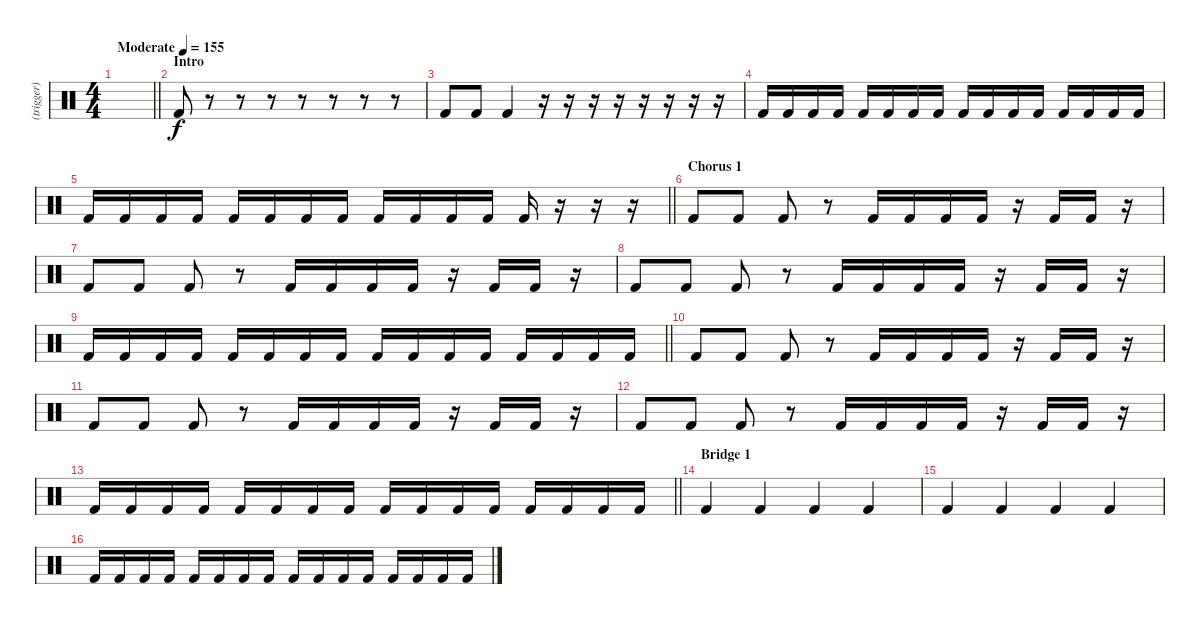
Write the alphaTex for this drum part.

\track ("(trigger)" "(trigger)") {instrument percussion}
\staff {score}
\articulation defaults
\ts (4 4)
\tempo (155 "Moderate")
\clef neutral
\barLineRight lightlight
\ks c
|
\section ("" "Intro")
"Kick (hit) 2".8{volume 8} r.8 r.8 r.8 r.8 r.8 r.8 r.8 |
"Kick (hit) 2".8 "Kick (hit) 2".8 "Kick (hit) 2".4 r.16 r.16 r.16 r.16 r.16 r.16 r.16 r.16 |
"Kick (hit) 2".16 "Kick (hit) 2".16 "Kick (hit) 2".16 "Kick (hit) 2".16 "Kick (hit) 2".16 "Kick (hit) 2".16 "Kick (hit) 2".16 "Kick (hit) 2".16 "Kick (hit) 2".16 "Kick (hit) 2".16 "Kick (hit) 2".16 "Kick (hit) 2".16 "Kick (hit) 2".16 "Kick (hit) 2".16 "Kick (hit) 2".16 "Kick (hit) 2".16 |
\barLineRight lightlight "Kick (hit) 2".16 "Kick (hit) 2".16 "Kick (hit) 2".16 "Kick (hit) 2".16 "Kick (hit) 2".16 "Kick (hit) 2".16 "Kick (hit) 2".16 "Kick (hit) 2".16 "Kick (hit) 2".16 "Kick (hit) 2".16 "Kick (hit) 2".16 "Kick (hit) 2".16 "Kick (hit) 2".16
r.16 r.16 r.16 |
\section ("" "Chorus 1")
"Kick (hit) 2".8 "Kick (hit) 2".8 "Kick (hit) 2".8 r.8 "Kick (hit) 2".16 "Kick (hit) 2".16 "Kick (hit) 2".16 "Kick (hit) 2".16 r.16 "Kick (hit) 2".16 "Kick (hit) 2".16 r.16 |
"Kick (hit) 2".8 "Kick (hit) 2".8 "Kick (hit) 2".8 r.8 "Kick (hit) 2".16 "Kick (hit) 2".16 "Kick (hit) 2".16 "Kick (hit) 2".16 r.16 "Kick (hit) 2".16 "Kick (hit) 2".16 r.16 |
"Kick (hit) 2".8 "Kick (hit) 2".8 "Kick (hit) 2".8 r.8 "Kick (hit) 2".16 "Kick (hit) 2".16 "Kick (hit) 2".16 "Kick (hit) 2".16 r.16 "Kick (hit) 2".16 "Kick (hit) 2".16 r.16 |
\barLineRight lightlight "Kick (hit) 2".16 "Kick (hit) 2".16 "Kick (hit) 2".16 "Kick (hit) 2".16 "Kick (hit) 2".16 "Kick (hit) 2".16 "Kick (hit) 2".16 "Kick (hit) 2".16 "Kick (hit) 2".16 "Kick (hit) 2".16 "Kick (hit) 2".16 "Kick (hit) 2".16 "Kick (hit) 2".16 "Kick (hit) 2".16 "Kick (hit) 2".16 "Kick (hit) 2".16
|
"Kick (hit) 2".8 "Kick (hit) 2".8 "Kick (hit) 2".8 r.8 "Kick (hit) 2".16 "Kick (hit) 2".16 "Kick (hit) 2".16 "Kick (hit) 2".16 r.16 "Kick (hit) 2".16 "Kick (hit) 2".16 r.16 |
"Kick (hit) 2".8 "Kick (hit) 2".8 "Kick (hit) 2".8 r.8 "Kick (hit) 2".16 "Kick (hit) 2".16 "Kick (hit) 2".16 "Kick (hit) 2".16 r.16 "Kick (hit) 2".16 "Kick (hit) 2".16 r.16 |
"Kick (hit) 2".8 "Kick (hit) 2".8 "Kick (hit) 2".8 r.8 "Kick (hit) 2".16 "Kick (hit) 2".16 "Kick (hit) 2".16 "Kick (hit) 2".16 r.16 "Kick (hit) 2".16 "Kick (hit) 2".16 r.16 |
\barLineRight lightlight "Kick (hit) 2".16 "Kick (hit) 2".16 "Kick (hit) 2".16 "Kick (hit) 2".16 "Kick (hit) 2".16 "Kick (hit) 2".16 "Kick (hit) 2".16 "Kick (hit) 2".16 "Kick (hit) 2".16 "Kick (hit) 2".16 "Kick (hit) 2".16 "Kick (hit) 2".16 "Kick (hit) 2".16 "Kick (hit) 2".16 "Kick (hit) 2".16 "Kick (hit) 2".16
|
\section ("" "Bridge 1")
"Kick (hit) 2".4 "Kick (hit) 2".4 "Kick (hit) 2".4 "Kick (hit) 2".4 |
"Kick (hit) 2".4 "Kick (hit) 2".4 "Kick (hit) 2".4 "Kick (hit) 2".4 |
"Kick (hit) 2".16 "Kick (hit) 2".16 "Kick (hit) 2".16 "Kick (hit) 2".16 "Kick (hit) 2".16 "Kick (hit) 2".16 "Kick (hit) 2".16 "Kick (hit) 2".16 "Kick (hit) 2".16 "Kick (hit) 2".16 "Kick (hit) 2".16 "Kick (hit) 2".16 "Kick (hit) 2".16 "Kick (hit) 2".16 "Kick (hit) 2".16 "Kick (hit) 2".16
